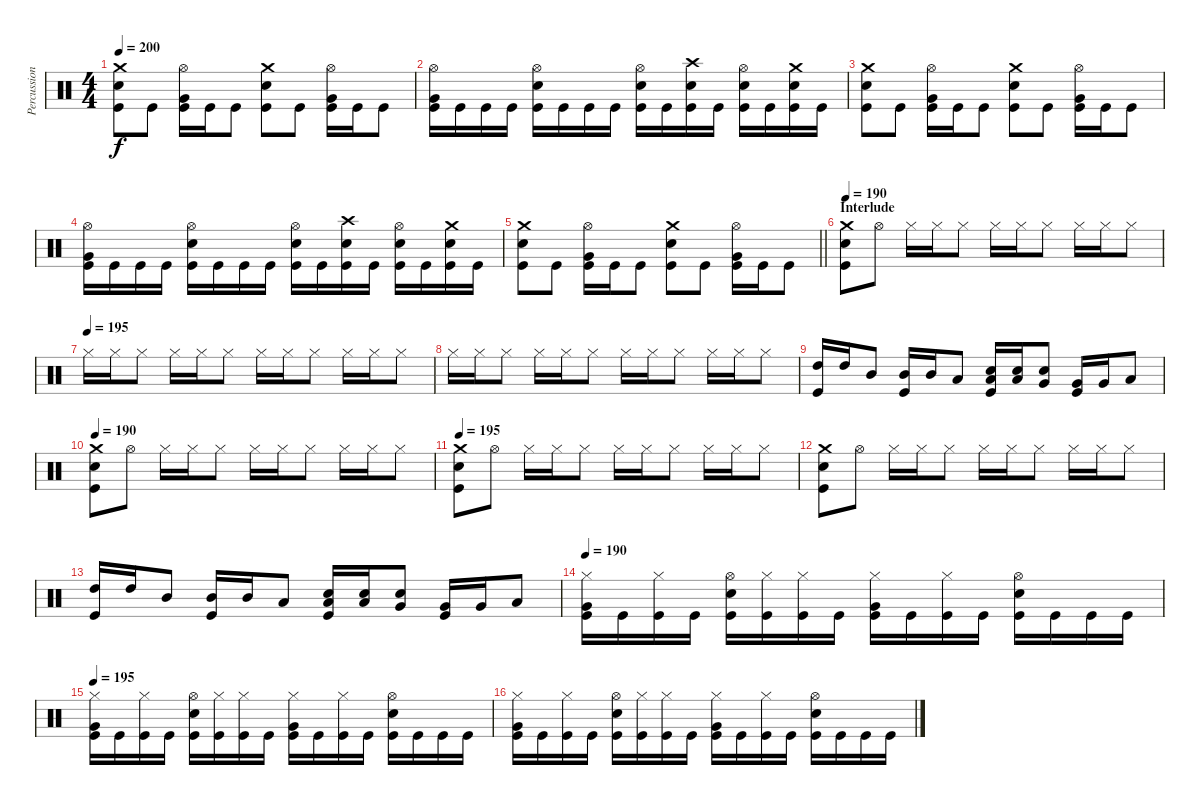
\track ("Percussion" "Percussion") {instrument percussion}
\staff {score}
\articulation defaults
\ts (4 4)
\tempo 200
\clef neutral
\ks c
("Kick (hit)" "Snare (hit) 2" "Crash medium (hit)").8{dy f} "Kick (hit)".8 ("Kick (hit)" "Very Low Tom (hit)" "Hi-Hat (open)").16 "Kick (hit)".16 "Kick (hit)".8 ("Kick (hit)" "Snare (hit) 2" "Crash medium (hit)").8 "Kick (hit)".8 ("Kick (hit)" "Very Low Tom (hit)" "Hi-Hat (open)").16 "Kick (hit)".16 "Kick (hit)".8 |
("Kick (hit)" "Very Low Tom (hit)" "Hi-Hat (open)").16 "Kick (hit)".16 "Kick (hit)".16 "Kick (hit)".16 ("Kick (hit)" "Snare (hit) 2" "Hi-Hat (open)").16 "Kick (hit)".16 "Kick (hit)".16 "Kick (hit)".16 ("Kick (hit)" "Snare (hit) 2" "Hi-Hat (open)").16 "Kick (hit)".16 ("Kick (hit)" "Snare (hit) 2" "Crash high (hit)").16 "Kick (hit)".16 ("Kick (hit)" "Snare (hit) 2" "Hi-Hat (open)").16 "Kick (hit)".16 ("Kick (hit)" "Snare (hit) 2" "Crash medium (hit)").16 "Kick (hit)".16 |
("Kick (hit)" "Snare (hit) 2" "Crash medium (hit)").8 "Kick (hit)".8 ("Kick (hit)" "Very Low Tom (hit)" "Hi-Hat (open)").16 "Kick (hit)".16 "Kick (hit)".8 ("Kick (hit)" "Snare (hit) 2" "Crash medium (hit)").8 "Kick (hit)".8 ("Kick (hit)" "Very Low Tom (hit)" "Hi-Hat (open)").16 "Kick (hit)".16 "Kick (hit)".8 |
("Kick (hit)" "Very Low Tom (hit)" "Hi-Hat (open)").16 "Kick (hit)".16 "Kick (hit)".16 "Kick (hit)".16 ("Kick (hit)" "Snare (hit) 2" "Hi-Hat (open)").16 "Kick (hit)".16 "Kick (hit)".16 "Kick (hit)".16 ("Kick (hit)" "Snare (hit) 2" "Hi-Hat (open)").16 "Kick (hit)".16 ("Kick (hit)" "Snare (hit) 2" "Crash high (hit)").16 "Kick (hit)".16 ("Kick (hit)" "Snare (hit) 2" "Hi-Hat (open)").16 "Kick (hit)".16 ("Kick (hit)" "Snare (hit) 2" "Crash medium (hit)").16 "Kick (hit)".16 |
\barLineRight lightlight
("Kick (hit)" "Snare (hit) 2" "Crash medium (hit)").8 "Kick (hit)".8 ("Kick (hit)" "Very Low Tom (hit)" "Hi-Hat (open)").16 "Kick (hit)".16 "Kick (hit)".8 ("Kick (hit)" "Snare (hit) 2" "Crash medium (hit)").8 "Kick (hit)".8 ("Kick (hit)" "Very Low Tom (hit)" "Hi-Hat (open)").16 "Kick (hit)".16 "Kick (hit)".8 |
\section ("" "Interlude")
\tempo 190
("Snare (hit) 2" "Crash medium (hit)" "Kick (hit)").8 "Hi-Hat (open)".8 "Hi-Hat (closed)".16 "Hi-Hat (closed)".16 "Hi-Hat (closed)".8 "Hi-Hat (closed)".16 "Hi-Hat (closed)".16 "Hi-Hat (closed)".8 "Hi-Hat (closed)".16 "Hi-Hat (closed)".16 "Hi-Hat (closed)".8 |
\tempo (195)
"Hi-Hat (closed)".16 "Hi-Hat (closed)".16 "Hi-Hat (closed)".8 "Hi-Hat (closed)".16 "Hi-Hat (closed)".16 "Hi-Hat (closed)".8 "Hi-Hat (closed)".16 "Hi-Hat (closed)".16 "Hi-Hat (closed)".8 "Hi-Hat (closed)".16 "Hi-Hat (closed)".16 "Hi-Hat (closed)".8 |
"Hi-Hat (closed)".16 "Hi-Hat (closed)".16 "Hi-Hat (closed)".8 "Hi-Hat (closed)".16 "Hi-Hat (closed)".16 "Hi-Hat (closed)".8 "Hi-Hat (closed)".16 "Hi-Hat (closed)".16 "Hi-Hat (closed)".8 "Hi-Hat (closed)".16 "Hi-Hat (closed)".16 "Hi-Hat (closed)".8 |
("High Tom (hit)" "Kick (hit)").16 "High Tom (hit)".16 "Mid Tom (hit)".8 ("Mid Tom (hit)" "Kick (hit)").16 "Mid Tom (hit)".16 "Low Tom (hit)".8 ("Low Tom (hit)" "Kick (hit)" "Snare (hit) 2").16 ("Low Tom (hit)" "Snare (hit) 2").16 ("Very Low Tom (hit)" "Snare (hit) 2").8 ("Very Low Tom (hit)" "Kick (hit)").16 "Very Low Tom (hit)".16 "Low Floor Tom (hit)".8 |
\tempo 200
\tempo 190
("Snare (hit) 2" "Crash medium (hit)" "Kick (hit)").8 "Hi-Hat (open)".8 "Hi-Hat (closed)".16 "Hi-Hat (closed)".16 "Hi-Hat (closed)".8 "Hi-Hat (closed)".16 "Hi-Hat (closed)".16 "Hi-Hat (closed)".8 "Hi-Hat (closed)".16 "Hi-Hat (closed)".16 "Hi-Hat (closed)".8 |
\tempo 195
("Snare (hit) 2" "Crash medium (hit)" "Kick (hit)").8 "Hi-Hat (open)".8 "Hi-Hat (closed)".16 "Hi-Hat (closed)".16 "Hi-Hat (closed)".8 "Hi-Hat (closed)".16 "Hi-Hat (closed)".16 "Hi-Hat (closed)".8 "Hi-Hat (closed)".16 "Hi-Hat (closed)".16 "Hi-Hat (closed)".8 |
("Snare (hit) 2" "Crash medium (hit)" "Kick (hit)").8 "Hi-Hat (open)".8 "Hi-Hat (closed)".16 "Hi-Hat (closed)".16 "Hi-Hat (closed)".8 "Hi-Hat (closed)".16 "Hi-Hat (closed)".16 "Hi-Hat (closed)".8 "Hi-Hat (closed)".16 "Hi-Hat (closed)".16 "Hi-Hat (closed)".8 |
("High Tom (hit)" "Kick (hit)").16 "High Tom (hit)".16 "Mid Tom (hit)".8 ("Mid Tom (hit)" "Kick (hit)").16 "Mid Tom (hit)".16 "Low Tom (hit)".8 ("Low Tom (hit)" "Kick (hit)" "Snare (hit) 2").16 ("Low Tom (hit)" "Snare (hit) 2").16 ("Very Low Tom (hit)" "Snare (hit) 2").8 ("Very Low Tom (hit)" "Kick (hit)").16 "Very Low Tom (hit)".16 "Low Floor Tom (hit)".8 |
\tempo 190
("Kick (hit)" "Very Low Tom (hit)" "Hi-Hat (closed)").16 "Kick (hit)".16 ("Kick (hit)" "Hi-Hat (closed)").16 "Kick (hit)".16 ("Kick (hit)" "Snare (hit) 2" "Hi-Hat (open)").16 ("Kick (hit)" "Hi-Hat (closed)").16 ("Kick (hit)" "Hi-Hat (closed)").16 "Kick (hit)".16 ("Kick (hit)" "Very Low Tom (hit)" "Hi-Hat (closed)").16 "Kick (hit)".16 ("Kick (hit)" "Hi-Hat (closed)").16 "Kick (hit)".16 ("Kick (hit)" "Snare (hit) 2" "Hi-Hat (open)").16 "Kick (hit)".16 "Kick (hit)".16 "Kick (hit)".16 |
\tempo 195
("Kick (hit)" "Very Low Tom (hit)" "Hi-Hat (closed)").16 "Kick (hit)".16 ("Kick (hit)" "Hi-Hat (closed)").16 "Kick (hit)".16 ("Kick (hit)" "Snare (hit) 2" "Hi-Hat (open)").16 ("Kick (hit)" "Hi-Hat (closed)").16 ("Kick (hit)" "Hi-Hat (closed)").16 "Kick (hit)".16 ("Kick (hit)" "Very Low Tom (hit)" "Hi-Hat (closed)").16 "Kick (hit)".16 ("Kick (hit)" "Hi-Hat (closed)").16 "Kick (hit)".16 ("Kick (hit)" "Snare (hit) 2" "Hi-Hat (open)").16 "Kick (hit)".16 "Kick (hit)".16 "Kick (hit)".16 |
("Kick (hit)" "Very Low Tom (hit)" "Hi-Hat (closed)").16 "Kick (hit)".16 ("Kick (hit)" "Hi-Hat (closed)").16 "Kick (hit)".16 ("Kick (hit)" "Snare (hit) 2" "Hi-Hat (open)").16 ("Kick (hit)" "Hi-Hat (closed)").16 ("Kick (hit)" "Hi-Hat (closed)").16 "Kick (hit)".16 ("Kick (hit)" "Very Low Tom (hit)" "Hi-Hat (closed)").16 "Kick (hit)".16 ("Kick (hit)" "Hi-Hat (closed)").16 "Kick (hit)".16 ("Kick (hit)" "Snare (hit) 2" "Hi-Hat (open)").16 "Kick (hit)".16 "Kick (hit)".16 "Kick (hit)".16
